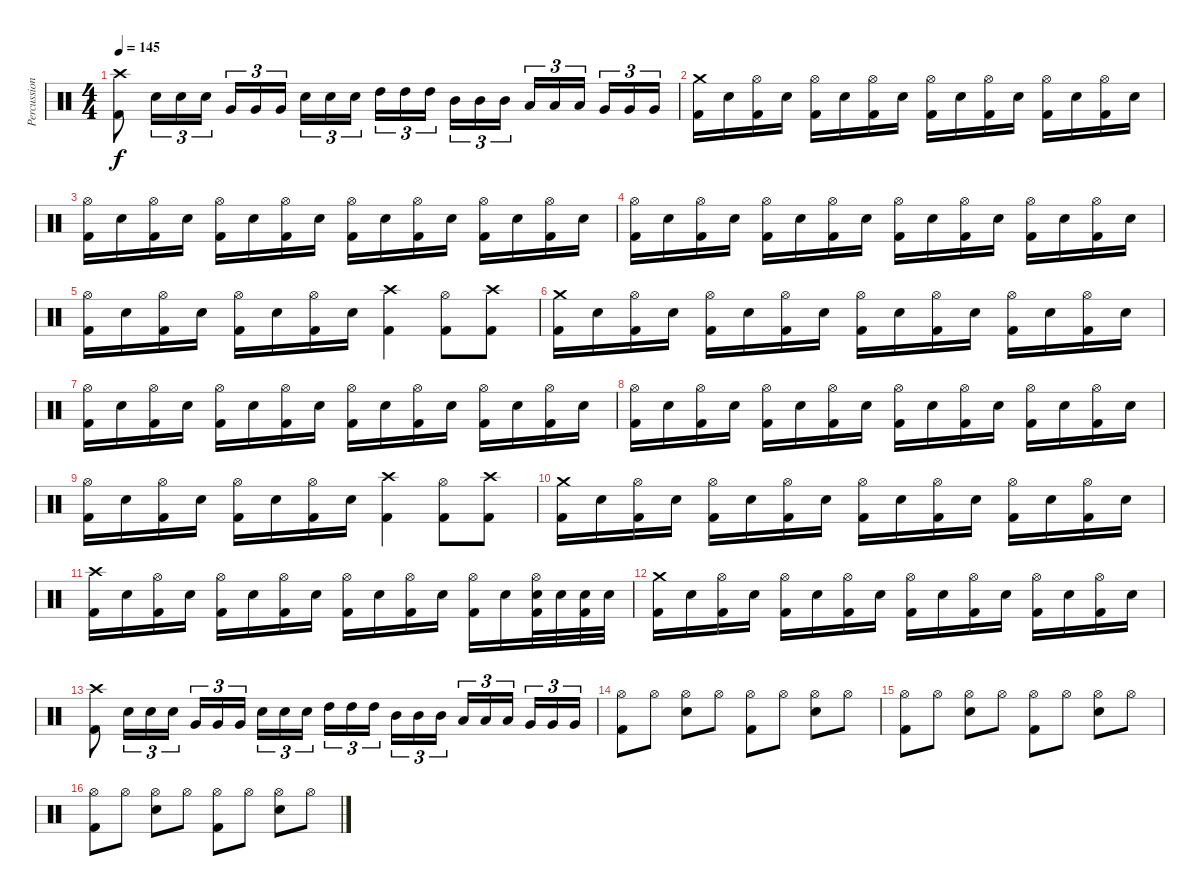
\track ("Percussions" "Percussion") {instrument percussion}
\staff {score}
\articulation defaults
\ts (4 4)
\tempo 145
\clef neutral
\ks c
("Crash high (hit)" "Kick (hit) 2").8{dy f} "Electric Snare (hit)".16{tu (3 2)} "Electric Snare (hit)".16{tu (3 2)} "Electric Snare (hit)".16{tu (3 2)} "Very Low Tom (hit)".16{tu (3 2)} "Very Low Tom (hit)".16{tu (3 2)} "Very Low Tom (hit)".16{tu (3 2) beam splitsecondary} "Electric Snare (hit)".16{tu (3 2)} "Electric Snare (hit)".16{tu (3 2)} "Electric Snare (hit)".16{tu (3 2)} "High Tom (hit)".16{tu (3 2)} "High Tom (hit)".16{tu (3 2)} "High Tom (hit)".16{tu (3 2) beam splitsecondary} "Mid Tom (hit)".16{tu (3 2)} "Mid Tom (hit)".16{tu (3 2)} "Mid Tom (hit)".16{tu (3 2)} "Low Tom (hit)".16{tu (3 2)} "Low Tom (hit)".16{tu (3 2)} "Low Tom (hit)".16{tu (3 2) beam splitsecondary} "Very Low Tom (hit)".16{tu (3 2)} "Very Low Tom (hit)".16{tu (3 2)} "Very Low Tom (hit)".16{tu (3 2)} |
("Crash medium (hit)" "Kick (hit) 2").16 "Electric Snare (hit)".16 ("Hi-Hat (open)" "Kick (hit) 2").16 "Electric Snare (hit)".16 ("Hi-Hat (open)" "Kick (hit) 2").16 "Electric Snare (hit)".16 ("Hi-Hat (open)" "Kick (hit) 2").16 "Electric Snare (hit)".16 ("Hi-Hat (open)" "Kick (hit) 2").16 "Electric Snare (hit)".16 ("Hi-Hat (open)" "Kick (hit) 2").16 "Electric Snare (hit)".16 ("Hi-Hat (open)" "Kick (hit) 2").16 "Electric Snare (hit)".16 ("Hi-Hat (open)" "Kick (hit) 2").16 "Electric Snare (hit)".16 |
("Hi-Hat (open)" "Kick (hit) 2").16 "Electric Snare (hit)".16 ("Hi-Hat (open)" "Kick (hit) 2").16 "Electric Snare (hit)".16 ("Hi-Hat (open)" "Kick (hit) 2").16 "Electric Snare (hit)".16 ("Hi-Hat (open)" "Kick (hit) 2").16 "Electric Snare (hit)".16 ("Hi-Hat (open)" "Kick (hit) 2").16 "Electric Snare (hit)".16 ("Hi-Hat (open)" "Kick (hit) 2").16 "Electric Snare (hit)".16 ("Hi-Hat (open)" "Kick (hit) 2").16 "Electric Snare (hit)".16 ("Hi-Hat (open)" "Kick (hit) 2").16 "Electric Snare (hit)".16 |
("Hi-Hat (open)" "Kick (hit) 2").16 "Electric Snare (hit)".16 ("Hi-Hat (open)" "Kick (hit) 2").16 "Electric Snare (hit)".16 ("Hi-Hat (open)" "Kick (hit) 2").16 "Electric Snare (hit)".16 ("Hi-Hat (open)" "Kick (hit) 2").16 "Electric Snare (hit)".16 ("Hi-Hat (open)" "Kick (hit) 2").16 "Electric Snare (hit)".16 ("Hi-Hat (open)" "Kick (hit) 2").16 "Electric Snare (hit)".16 ("Hi-Hat (open)" "Kick (hit) 2").16 "Electric Snare (hit)".16 ("Hi-Hat (open)" "Kick (hit) 2").16 "Electric Snare (hit)".16 |
("Hi-Hat (open)" "Kick (hit) 2").16 "Electric Snare (hit)".16 ("Hi-Hat (open)" "Kick (hit) 2").16 "Electric Snare (hit)".16 ("Hi-Hat (open)" "Kick (hit) 2").16 "Electric Snare (hit)".16 ("Hi-Hat (open)" "Kick (hit) 2").16 "Electric Snare (hit)".16 ("Crash high (hit)" "Kick (hit) 2").4 ("Hi-Hat (open)" "Kick (hit) 2").8 ("Crash high (hit)" "Kick (hit) 2").8 |
("Crash medium (hit)" "Kick (hit) 2").16 "Electric Snare (hit)".16 ("Hi-Hat (open)" "Kick (hit) 2").16 "Electric Snare (hit)".16 ("Hi-Hat (open)" "Kick (hit) 2").16 "Electric Snare (hit)".16 ("Hi-Hat (open)" "Kick (hit) 2").16 "Electric Snare (hit)".16 ("Hi-Hat (open)" "Kick (hit) 2").16 "Electric Snare (hit)".16 ("Hi-Hat (open)" "Kick (hit) 2").16 "Electric Snare (hit)".16 ("Hi-Hat (open)" "Kick (hit) 2").16 "Electric Snare (hit)".16 ("Hi-Hat (open)" "Kick (hit) 2").16 "Electric Snare (hit)".16 |
("Hi-Hat (open)" "Kick (hit) 2").16 "Electric Snare (hit)".16 ("Hi-Hat (open)" "Kick (hit) 2").16 "Electric Snare (hit)".16 ("Hi-Hat (open)" "Kick (hit) 2").16 "Electric Snare (hit)".16 ("Hi-Hat (open)" "Kick (hit) 2").16 "Electric Snare (hit)".16 ("Hi-Hat (open)" "Kick (hit) 2").16 "Electric Snare (hit)".16 ("Hi-Hat (open)" "Kick (hit) 2").16 "Electric Snare (hit)".16 ("Hi-Hat (open)" "Kick (hit) 2").16 "Electric Snare (hit)".16 ("Hi-Hat (open)" "Kick (hit) 2").16 "Electric Snare (hit)".16 |
("Hi-Hat (open)" "Kick (hit) 2").16 "Electric Snare (hit)".16 ("Hi-Hat (open)" "Kick (hit) 2").16 "Electric Snare (hit)".16 ("Hi-Hat (open)" "Kick (hit) 2").16 "Electric Snare (hit)".16 ("Hi-Hat (open)" "Kick (hit) 2").16 "Electric Snare (hit)".16 ("Hi-Hat (open)" "Kick (hit) 2").16 "Electric Snare (hit)".16 ("Hi-Hat (open)" "Kick (hit) 2").16 "Electric Snare (hit)".16 ("Hi-Hat (open)" "Kick (hit) 2").16 "Electric Snare (hit)".16 ("Hi-Hat (open)" "Kick (hit) 2").16 "Electric Snare (hit)".16 |
("Hi-Hat (open)" "Kick (hit) 2").16 "Electric Snare (hit)".16 ("Hi-Hat (open)" "Kick (hit) 2").16 "Electric Snare (hit)".16 ("Hi-Hat (open)" "Kick (hit) 2").16 "Electric Snare (hit)".16 ("Hi-Hat (open)" "Kick (hit) 2").16 "Electric Snare (hit)".16 ("Crash high (hit)" "Kick (hit) 2").4 ("Hi-Hat (open)" "Kick (hit) 2").8 ("Crash high (hit)" "Kick (hit) 2").8 |
("Crash medium (hit)" "Kick (hit) 2").16 "Electric Snare (hit)".16 ("Hi-Hat (open)" "Kick (hit) 2").16 "Electric Snare (hit)".16 ("Hi-Hat (open)" "Kick (hit) 2").16 "Electric Snare (hit)".16 ("Hi-Hat (open)" "Kick (hit) 2").16 "Electric Snare (hit)".16 ("Hi-Hat (open)" "Kick (hit) 2").16 "Electric Snare (hit)".16 ("Hi-Hat (open)" "Kick (hit) 2").16 "Electric Snare (hit)".16 ("Hi-Hat (open)" "Kick (hit) 2").16 "Electric Snare (hit)".16 ("Hi-Hat (open)" "Kick (hit) 2").16 "Electric Snare (hit)".16 |
("Crash high (hit)" "Kick (hit) 2").16 "Electric Snare (hit)".16 ("Hi-Hat (open)" "Kick (hit) 2").16 "Electric Snare (hit)".16 ("Hi-Hat (open)" "Kick (hit) 2").16 "Electric Snare (hit)".16 ("Hi-Hat (open)" "Kick (hit) 2").16 "Electric Snare (hit)".16 ("Hi-Hat (open)" "Kick (hit) 2").16 "Electric Snare (hit)".16 ("Hi-Hat (open)" "Kick (hit) 2").16 "Electric Snare (hit)".16 ("Hi-Hat (open)" "Kick (hit) 2").16 "Electric Snare (hit)".16 ("Hi-Hat (open)" "Electric Snare (hit)" "Kick (hit) 2").32 "Electric Snare (hit)".32 ("Electric Snare (hit)" "Kick (hit) 2").32 "Electric Snare (hit)".32 |
("Crash medium (hit)" "Kick (hit) 2").16 "Electric Snare (hit)".16 ("Hi-Hat (open)" "Kick (hit) 2").16 "Electric Snare (hit)".16 ("Hi-Hat (open)" "Kick (hit) 2").16 "Electric Snare (hit)".16 ("Hi-Hat (open)" "Kick (hit) 2").16 "Electric Snare (hit)".16 ("Hi-Hat (open)" "Kick (hit) 2").16 "Electric Snare (hit)".16 ("Hi-Hat (open)" "Kick (hit) 2").16 "Electric Snare (hit)".16 ("Hi-Hat (open)" "Kick (hit) 2").16 "Electric Snare (hit)".16 ("Hi-Hat (open)" "Kick (hit) 2").16 "Electric Snare (hit)".16 |
("Crash high (hit)" "Kick (hit) 2").8 "Electric Snare (hit)".16{tu (3 2)} "Electric Snare (hit)".16{tu (3 2)} "Electric Snare (hit)".16{tu (3 2)} "Very Low Tom (hit)".16{tu (3 2)} "Very Low Tom (hit)".16{tu (3 2)} "Very Low Tom (hit)".16{tu (3 2) beam splitsecondary} "Electric Snare (hit)".16{tu (3 2)} "Electric Snare (hit)".16{tu (3 2)} "Electric Snare (hit)".16{tu (3 2)} "High Tom (hit)".16{tu (3 2)} "High Tom (hit)".16{tu (3 2)} "High Tom (hit)".16{tu (3 2) beam splitsecondary} "Mid Tom (hit)".16{tu (3 2)} "Mid Tom (hit)".16{tu (3 2)} "Mid Tom (hit)".16{tu (3 2)} "Low Tom (hit)".16{tu (3 2)} "Low Tom (hit)".16{tu (3 2)} "Low Tom (hit)".16{tu (3 2) beam splitsecondary} "Very Low Tom (hit)".16{tu (3 2)} "Very Low Tom (hit)".16{tu (3 2)} "Very Low Tom (hit)".16{tu (3 2)} |
("Hi-Hat (open)" "Kick (hit) 2").8 "Hi-Hat (open)".8 ("Hi-Hat (open)" "Electric Snare (hit)").8 "Hi-Hat (open)".8 ("Hi-Hat (open)" "Kick (hit) 2").8 "Hi-Hat (open)".8 ("Hi-Hat (open)" "Electric Snare (hit)").8 "Hi-Hat (open)".8 |
("Hi-Hat (open)" "Kick (hit) 2").8 "Hi-Hat (open)".8 ("Hi-Hat (open)" "Electric Snare (hit)").8 "Hi-Hat (open)".8 ("Hi-Hat (open)" "Kick (hit) 2").8 "Hi-Hat (open)".8 ("Hi-Hat (open)" "Electric Snare (hit)").8 "Hi-Hat (open)".8 |
("Hi-Hat (open)" "Kick (hit) 2").8 "Hi-Hat (open)".8 ("Hi-Hat (open)" "Electric Snare (hit)").8 "Hi-Hat (open)".8 ("Hi-Hat (open)" "Kick (hit) 2").8 "Hi-Hat (open)".8 ("Hi-Hat (open)" "Electric Snare (hit)").8 "Hi-Hat (open)".8
